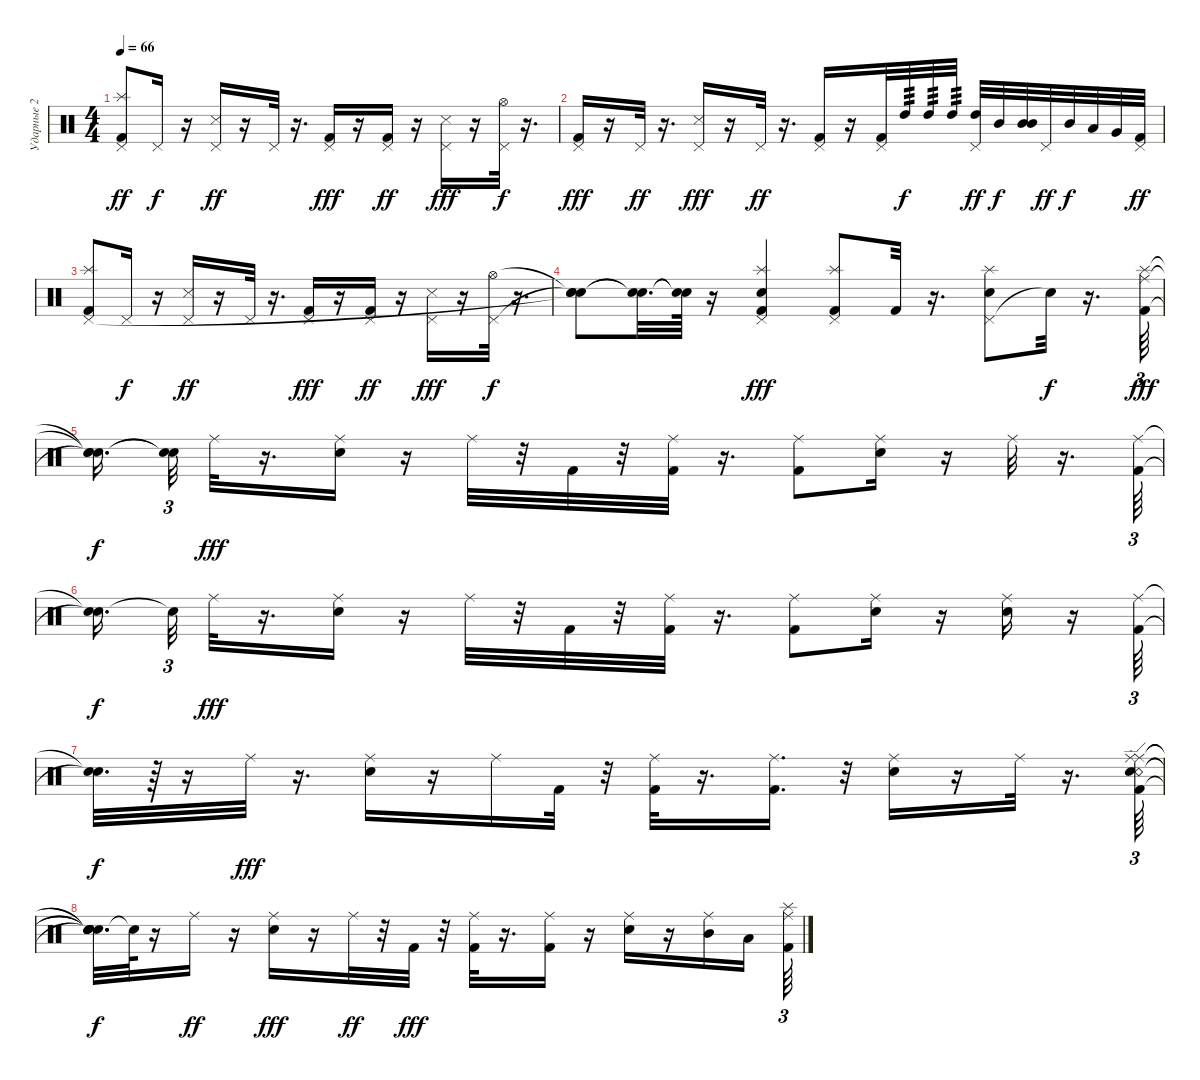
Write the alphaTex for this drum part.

\track ("Ударные 2" "Ударные 2") {instrument percussion}
\staff {score}
\articulation defaults
\ts (4 4)
\tempo 66
\clef neutral
\ks c
("Kick (hit) 2" "Splash (hit)" "Pedal Hi-Hat (hit)").8{dy ff} "Pedal Hi-Hat (hit)".16{dy f} r.16 ("Pedal Hi-Hat (hit)" "Snare (side stick) 3").16{dy ff} r.16 "Pedal Hi-Hat (hit)".32 r.16{d} ("Kick (hit) 2" "Pedal Hi-Hat (hit)").16{dy fff} r.16 ("Kick (hit) 2" "Pedal Hi-Hat (hit)").16{dy ff} r.16 ("Pedal Hi-Hat (hit)" "Snare (side stick) 3").16{dy fff} r.16 ("Pedal Hi-Hat (hit)" "Hi-Hat (open)").32{dy f} r.16{d} |
("Kick (hit) 2" "Pedal Hi-Hat (hit)").16{dy fff} r.16 "Pedal Hi-Hat (hit)".32{dy ff} r.16{d} ("Pedal Hi-Hat (hit)" "Snare (side stick) 3").16{dy fff} r.16 "Pedal Hi-Hat (hit)".32{dy ff} r.16{d} ("Kick (hit) 2" "Pedal Hi-Hat (hit)").16 r.16 ("Kick (hit) 2" "Pedal Hi-Hat (hit)").32 "High Tom (hit)".32{tp 3 dy f} "High Tom (hit)".32{tp 3} "High Tom (hit)".32{tp 3} ("High Tom (hit)" "Pedal Hi-Hat (hit)").32{dy ff} "Mid Tom (hit)".32{dy f} ("Mid Tom (hit)" "Mid Tom (hit)").32 "Pedal Hi-Hat (hit)".32{dy ff} "Mid Tom (hit)".32{dy f} "Low Tom (hit)".32 "Very Low Tom (hit)".32 ("Kick (hit) 2" "Pedal Hi-Hat (hit)").32{dy ff} |
("Kick (hit) 2" "Splash (hit)" "Pedal Hi-Hat (hit)").8 "Pedal Hi-Hat (hit)".16{dy f} r.16 ("Pedal Hi-Hat (hit)" "Snare (side stick) 3").16{dy ff} r.16 "Pedal Hi-Hat (hit)".32 r.16{d} ("Kick (hit) 2" "Pedal Hi-Hat (hit)").16{dy fff} r.16 ("Kick (hit) 2" "Pedal Hi-Hat (hit)").16{dy ff} r.16 ("Pedal Hi-Hat (hit)" "Snare (side stick) 3").16{dy fff} r.16 ("Pedal Hi-Hat (hit)" "Hi-Hat (open)").32{dy f} r.16{d} |
("Snare (hit)"{t} "Snare (hit)"{t} "Snare (hit)"{t}).8 ("Snare (hit)"{t} "Snare (hit)"{t}).32{d} ("Snare (hit)"{t} "Snare (hit)"{t}).64 r.16 ("Splash (hit)" "Pedal Hi-Hat (hit)" "Snare (hit) 2" "Kick (hit) 2").4{dy fff} ("Kick (hit) 2" "Splash (hit)" "Pedal Hi-Hat (hit)").8 "Kick (hit) 2".32 r.16{d} ("Pedal Hi-Hat (hit)" "Splash (hit)" "Snare (hit) 2").8 "Snare (hit)"{t}.32{dy f} r.16{d} ("Kick (hit) 2" "Splash (hit)" "Ride (middle)").64{tu (3 2) dy fff} |
("Snare (hit)"{t} "Snare (hit)"{t} "Snare (hit)"{t}).16{d dy f beam splitsecondary} ("Snare (hit)"{t} "Snare (hit)"{t}).32{tu (3 2)} "Ride (middle)".32{dy fff} r.16{d} ("Ride (middle)" "Snare (hit) 2").16 r.16 "Ride (middle)".32 r.32 "Kick (hit) 2".32 r.32 ("Kick (hit) 2" "Ride (middle)").32 r.16{d} ("Kick (hit) 2" "Ride (middle)").8 ("Ride (middle)" "Snare (hit) 2").16 r.16 "Ride (middle)".32 r.16{d} ("Kick (hit) 2" "Ride (middle)").64{tu (3 2)} |
("Snare (hit)"{t} "Snare (hit)"{t}).16{d dy f beam splitsecondary} "Snare (hit)"{t}.32{tu (3 2)} "Ride (middle)".32{dy fff} r.16{d} ("Ride (middle)" "Snare (hit) 2").16 r.16 "Ride (middle)".32 r.32 "Kick (hit) 2".32 r.32 ("Kick (hit) 2" "Ride (middle)").32 r.16{d} ("Kick (hit) 2" "Ride (middle)").8 ("Ride (middle)" "Snare (hit) 2").16 r.16 ("Ride (middle)" "Snare (hit) 2").16 r.16 ("Ride (middle)" "Kick (hit) 2").64{tu (3 2)} |
("Snare (hit)"{t} "Snare (hit)"{t}).32{d dy f} r.64 r.16 "Ride (middle)".32{dy fff} r.16{d} ("Snare (hit) 2" "Ride (middle)").16 r.16 "Ride (middle)".16 "Kick (hit) 2".32 r.32 ("Kick (hit) 2" "Ride (middle)").32 r.16{d} ("Kick (hit) 2" "Ride (middle)").16{d} r.32 ("Snare (hit) 2" "Ride (middle)").16 r.16 "Ride (middle)".32 r.16{d} ("Ride (middle)" "Kick (hit) 2" "Snare (rim shot)" "Ride (edge)" "Snare (hit)").64{tu (3 2)} |
("Snare (hit)"{t} "Snare (hit)"{t} "Snare (hit)"{t} "Snare (hit)"{t} "Snare (hit)"{t}).32{d dy f} "Snare (hit)"{t}.64 r.16 "Ride (middle)".16{dy ff} r.16 ("Ride (middle)" "Snare (hit) 2").16{dy fff} r.16 "Ride (middle)".32{dy ff} r.32 "Kick (hit) 2".32{dy fff} r.32 ("Ride (middle)" "Kick (hit) 2").32 r.16{d} ("Ride (middle)" "Kick (hit) 2").16 r.16 ("Snare (hit) 2" "Ride (middle)").16 r.16 ("Ride (middle)" "Mid Tom (hit)").16 "Low Tom (hit)".16 ("Splash (hit)" "Ride (middle)" "Kick (hit) 2").64{tu (3 2)}
